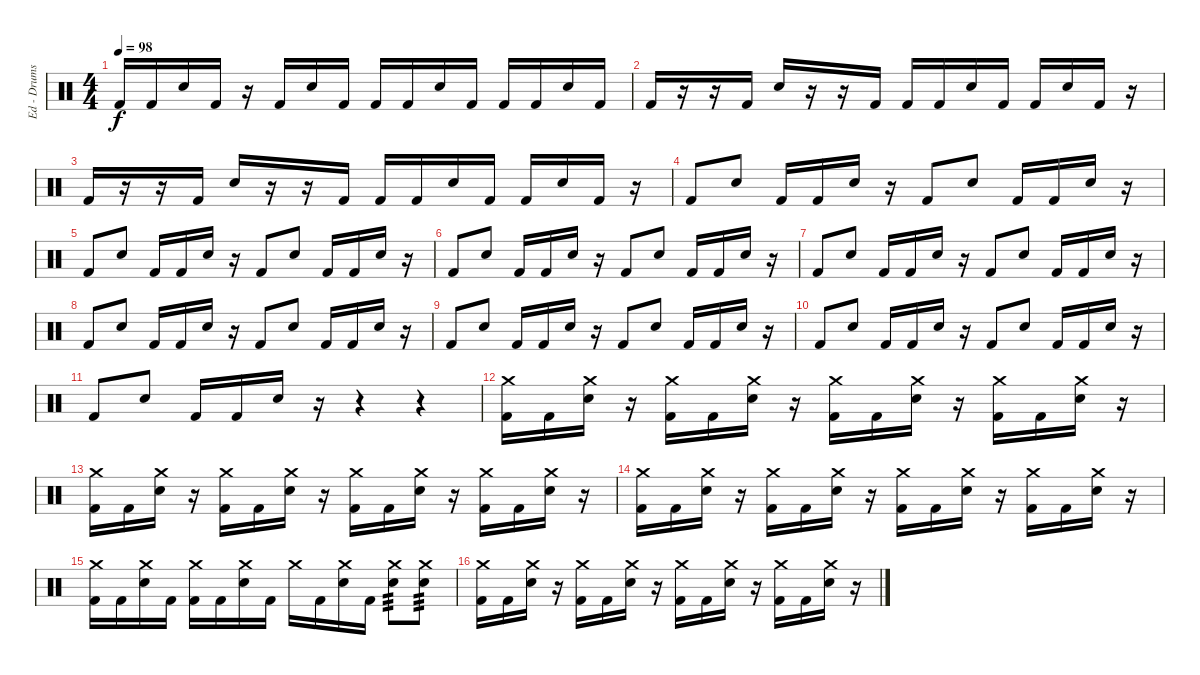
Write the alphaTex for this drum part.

\track ("Ed - Drums" "Ed - Drums") {instrument percussion}
\staff {score}
\articulation defaults
\ts (4 4)
\tempo 98
\clef neutral
\ks c "Kick (hit) 2".16{dy f} "Kick (hit) 2".16 "Electric Snare (hit)".16 "Kick (hit) 2".16
r.16 "Kick (hit) 2".16 "Electric Snare (hit)".16 "Kick (hit) 2".16 "Kick (hit) 2".16 "Kick (hit) 2".16 "Electric Snare (hit)".16 "Kick (hit) 2".16 "Kick (hit) 2".16 "Kick (hit) 2".16 "Electric Snare (hit)".16 "Kick (hit) 2".16 |
"Kick (hit) 2".16 r.16 r.16 "Kick (hit) 2".16 "Electric Snare (hit)".16 r.16 r.16 "Kick (hit) 2".16 "Kick (hit) 2".16 "Kick (hit) 2".16 "Electric Snare (hit)".16 "Kick (hit) 2".16 "Kick (hit) 2".16 "Electric Snare (hit)".16 "Kick (hit) 2".16 r.16 |
"Kick (hit) 2".16 r.16 r.16 "Kick (hit) 2".16 "Electric Snare (hit)".16 r.16 r.16 "Kick (hit) 2".16 "Kick (hit) 2".16 "Kick (hit) 2".16 "Electric Snare (hit)".16 "Kick (hit) 2".16 "Kick (hit) 2".16 "Electric Snare (hit)".16 "Kick (hit) 2".16 r.16 |
"Kick (hit) 2".8 "Electric Snare (hit)".8 "Kick (hit) 2".16 "Kick (hit) 2".16 "Electric Snare (hit)".16 r.16 "Kick (hit) 2".8 "Electric Snare (hit)".8 "Kick (hit) 2".16 "Kick (hit) 2".16 "Electric Snare (hit)".16 r.16 |
"Kick (hit) 2".8 "Electric Snare (hit)".8 "Kick (hit) 2".16 "Kick (hit) 2".16 "Electric Snare (hit)".16 r.16 "Kick (hit) 2".8 "Electric Snare (hit)".8 "Kick (hit) 2".16 "Kick (hit) 2".16 "Electric Snare (hit)".16 r.16 |
"Kick (hit) 2".8 "Electric Snare (hit)".8 "Kick (hit) 2".16 "Kick (hit) 2".16 "Electric Snare (hit)".16 r.16 "Kick (hit) 2".8 "Electric Snare (hit)".8 "Kick (hit) 2".16 "Kick (hit) 2".16 "Electric Snare (hit)".16 r.16 |
"Kick (hit) 2".8 "Electric Snare (hit)".8 "Kick (hit) 2".16 "Kick (hit) 2".16 "Electric Snare (hit)".16 r.16 "Kick (hit) 2".8 "Electric Snare (hit)".8 "Kick (hit) 2".16 "Kick (hit) 2".16 "Electric Snare (hit)".16 r.16 |
"Kick (hit) 2".8 "Electric Snare (hit)".8 "Kick (hit) 2".16 "Kick (hit) 2".16 "Electric Snare (hit)".16 r.16 "Kick (hit) 2".8 "Electric Snare (hit)".8 "Kick (hit) 2".16 "Kick (hit) 2".16 "Electric Snare (hit)".16 r.16 |
"Kick (hit) 2".8 "Electric Snare (hit)".8 "Kick (hit) 2".16 "Kick (hit) 2".16 "Electric Snare (hit)".16 r.16 "Kick (hit) 2".8 "Electric Snare (hit)".8 "Kick (hit) 2".16 "Kick (hit) 2".16 "Electric Snare (hit)".16 r.16 |
"Kick (hit) 2".8 "Electric Snare (hit)".8 "Kick (hit) 2".16 "Kick (hit) 2".16 "Electric Snare (hit)".16 r.16 "Kick (hit) 2".8 "Electric Snare (hit)".8 "Kick (hit) 2".16 "Kick (hit) 2".16 "Electric Snare (hit)".16 r.16 |
"Kick (hit) 2".8 "Electric Snare (hit)".8 "Kick (hit) 2".16 "Kick (hit) 2".16 "Electric Snare (hit)".16 r.16 r.4 r.4 |
("Crash medium (hit)" "Kick (hit) 2").16 "Kick (hit) 2".16 ("Crash medium (hit)" "Electric Snare (hit)").16 r.16 ("Crash medium (hit)" "Kick (hit) 2").16 "Kick (hit) 2".16 ("Crash medium (hit)" "Electric Snare (hit)").16 r.16 ("Crash medium (hit)" "Kick (hit) 2").16 "Kick (hit) 2".16 ("Crash medium (hit)" "Electric Snare (hit)").16 r.16 ("Crash medium (hit)" "Kick (hit) 2").16 "Kick (hit) 2".16 ("Crash medium (hit)" "Electric Snare (hit)").16 r.16 |
("Crash medium (hit)" "Kick (hit) 2").16 "Kick (hit) 2".16 ("Crash medium (hit)" "Electric Snare (hit)").16 r.16 ("Crash medium (hit)" "Kick (hit) 2").16 "Kick (hit) 2".16 ("Crash medium (hit)" "Electric Snare (hit)").16 r.16 ("Crash medium (hit)" "Kick (hit) 2").16 "Kick (hit) 2".16 ("Crash medium (hit)" "Electric Snare (hit)").16 r.16 ("Crash medium (hit)" "Kick (hit) 2").16 "Kick (hit) 2".16 ("Crash medium (hit)" "Electric Snare (hit)").16 r.16 |
("Crash medium (hit)" "Kick (hit) 2").16 "Kick (hit) 2".16 ("Crash medium (hit)" "Electric Snare (hit)").16 r.16 ("Crash medium (hit)" "Kick (hit) 2").16 "Kick (hit) 2".16 ("Crash medium (hit)" "Electric Snare (hit)").16 r.16 ("Crash medium (hit)" "Kick (hit) 2").16 "Kick (hit) 2".16 ("Crash medium (hit)" "Electric Snare (hit)").16 r.16 ("Crash medium (hit)" "Kick (hit) 2").16 "Kick (hit) 2".16 ("Crash medium (hit)" "Electric Snare (hit)").16 r.16 |
("Crash medium (hit)" "Kick (hit) 2").16 "Kick (hit) 2".16 ("Crash medium (hit)" "Electric Snare (hit)").16 "Kick (hit) 2".16 ("Crash medium (hit)" "Kick (hit) 2").16 "Kick (hit) 2".16 ("Crash medium (hit)" "Electric Snare (hit)").16 "Kick (hit) 2".16 "Crash medium (hit)".16 "Kick (hit) 2".16 ("Crash medium (hit)" "Electric Snare (hit)").16 "Kick (hit) 2".16 ("Crash medium (hit)" "Electric Snare (hit)").8{tp 3} ("Crash medium (hit)" "Electric Snare (hit)").8{tp 3} |
("Crash medium (hit)" "Kick (hit) 2").16 "Kick (hit) 2".16 ("Crash medium (hit)" "Electric Snare (hit)").16 r.16 ("Crash medium (hit)" "Kick (hit) 2").16 "Kick (hit) 2".16 ("Crash medium (hit)" "Electric Snare (hit)").16 r.16 ("Crash medium (hit)" "Kick (hit) 2").16 "Kick (hit) 2".16 ("Crash medium (hit)" "Electric Snare (hit)").16 r.16 ("Crash medium (hit)" "Kick (hit) 2").16 "Kick (hit) 2".16 ("Crash medium (hit)" "Electric Snare (hit)").16 r.16
